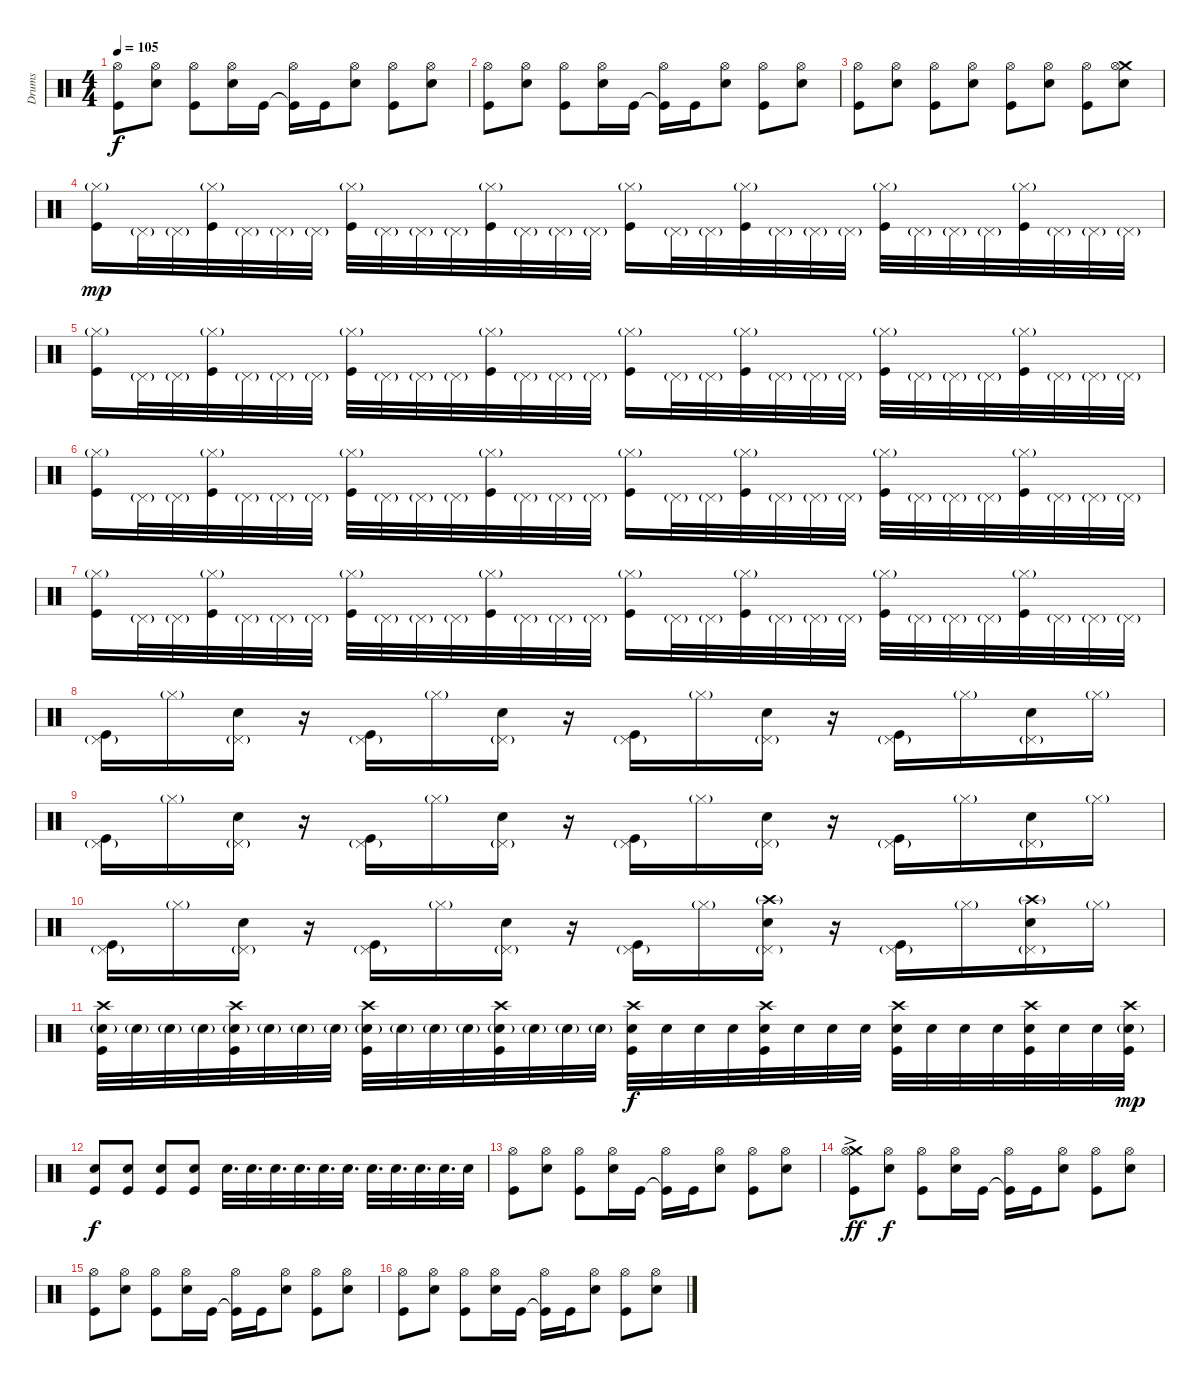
\track ("Drums" "Drums") {instrument percussion}
\staff {score}
\articulation defaults
\ts (4 4)
\tempo 105
\clef neutral
\ks c
("Kick (hit)" "Hi-Hat (open)").8{dy f} ("Electric Snare (hit)" "Hi-Hat (open)").8 ("Kick (hit)" "Hi-Hat (open)").8 ("Electric Snare (hit)" "Hi-Hat (open)").16 "Kick (hit)".16 ("Kick (hit)"{t} "Hi-Hat (open)").16 "Kick (hit)".16 ("Electric Snare (hit)" "Hi-Hat (open)").8 ("Kick (hit)" "Hi-Hat (open)").8 ("Electric Snare (hit)" "Hi-Hat (open)").8 |
("Kick (hit)" "Hi-Hat (open)").8 ("Electric Snare (hit)" "Hi-Hat (open)").8 ("Kick (hit)" "Hi-Hat (open)").8 ("Electric Snare (hit)" "Hi-Hat (open)").16 "Kick (hit)".16 ("Kick (hit)"{t} "Hi-Hat (open)").16 "Kick (hit)".16 ("Electric Snare (hit)" "Hi-Hat (open)").8 ("Kick (hit)" "Hi-Hat (open)").8 ("Electric Snare (hit)" "Hi-Hat (open)").8 |
("Kick (hit)" "Hi-Hat (open)").8 ("Electric Snare (hit)" "Hi-Hat (open)").8 ("Kick (hit)" "Hi-Hat (open)").8 ("Electric Snare (hit)" "Hi-Hat (open)").8 ("Kick (hit)" "Hi-Hat (open)").8 ("Electric Snare (hit)" "Hi-Hat (open)").8 ("Kick (hit)" "Hi-Hat (open)").8 ("Electric Snare (hit)" "Crash medium (hit)" "Hi-Hat (open)").8 |
("Hi-Hat (closed)"{g} "Kick (hit)").16{dy mp} "Pedal Hi-Hat (hit)"{g}.32 "Pedal Hi-Hat (hit)"{g}.32 ("Hi-Hat (closed)"{g} "Kick (hit)").32 "Pedal Hi-Hat (hit)"{g}.32 "Pedal Hi-Hat (hit)"{g}.32 "Pedal Hi-Hat (hit)"{g}.32 ("Hi-Hat (closed)"{g} "Kick (hit)").32 "Pedal Hi-Hat (hit)"{g}.32 "Pedal Hi-Hat (hit)"{g}.32 "Pedal Hi-Hat (hit)"{g}.32 ("Hi-Hat (closed)"{g} "Kick (hit)").32 "Pedal Hi-Hat (hit)"{g}.32 "Pedal Hi-Hat (hit)"{g}.32 "Pedal Hi-Hat (hit)"{g}.32 ("Hi-Hat (closed)"{g} "Kick (hit)").16 "Pedal Hi-Hat (hit)"{g}.32 "Pedal Hi-Hat (hit)"{g}.32 ("Hi-Hat (closed)"{g} "Kick (hit)").32 "Pedal Hi-Hat (hit)"{g}.32 "Pedal Hi-Hat (hit)"{g}.32 "Pedal Hi-Hat (hit)"{g}.32 ("Hi-Hat (closed)"{g} "Kick (hit)").32 "Pedal Hi-Hat (hit)"{g}.32 "Pedal Hi-Hat (hit)"{g}.32 "Pedal Hi-Hat (hit)"{g}.32 ("Hi-Hat (closed)"{g} "Kick (hit)").32 "Pedal Hi-Hat (hit)"{g}.32 "Pedal Hi-Hat (hit)"{g}.32 "Pedal Hi-Hat (hit)"{g}.32 |
("Hi-Hat (closed)"{g} "Kick (hit)").16 "Pedal Hi-Hat (hit)"{g}.32 "Pedal Hi-Hat (hit)"{g}.32 ("Hi-Hat (closed)"{g} "Kick (hit)").32 "Pedal Hi-Hat (hit)"{g}.32 "Pedal Hi-Hat (hit)"{g}.32 "Pedal Hi-Hat (hit)"{g}.32 ("Hi-Hat (closed)"{g} "Kick (hit)").32 "Pedal Hi-Hat (hit)"{g}.32 "Pedal Hi-Hat (hit)"{g}.32 "Pedal Hi-Hat (hit)"{g}.32 ("Hi-Hat (closed)"{g} "Kick (hit)").32 "Pedal Hi-Hat (hit)"{g}.32 "Pedal Hi-Hat (hit)"{g}.32 "Pedal Hi-Hat (hit)"{g}.32 ("Hi-Hat (closed)"{g} "Kick (hit)").16 "Pedal Hi-Hat (hit)"{g}.32 "Pedal Hi-Hat (hit)"{g}.32 ("Hi-Hat (closed)"{g} "Kick (hit)").32 "Pedal Hi-Hat (hit)"{g}.32 "Pedal Hi-Hat (hit)"{g}.32 "Pedal Hi-Hat (hit)"{g}.32 ("Hi-Hat (closed)"{g} "Kick (hit)").32 "Pedal Hi-Hat (hit)"{g}.32 "Pedal Hi-Hat (hit)"{g}.32 "Pedal Hi-Hat (hit)"{g}.32 ("Hi-Hat (closed)"{g} "Kick (hit)").32 "Pedal Hi-Hat (hit)"{g}.32 "Pedal Hi-Hat (hit)"{g}.32 "Pedal Hi-Hat (hit)"{g}.32 |
("Hi-Hat (closed)"{g} "Kick (hit)").16 "Pedal Hi-Hat (hit)"{g}.32 "Pedal Hi-Hat (hit)"{g}.32 ("Hi-Hat (closed)"{g} "Kick (hit)").32 "Pedal Hi-Hat (hit)"{g}.32 "Pedal Hi-Hat (hit)"{g}.32 "Pedal Hi-Hat (hit)"{g}.32 ("Hi-Hat (closed)"{g} "Kick (hit)").32 "Pedal Hi-Hat (hit)"{g}.32 "Pedal Hi-Hat (hit)"{g}.32 "Pedal Hi-Hat (hit)"{g}.32 ("Hi-Hat (closed)"{g} "Kick (hit)").32 "Pedal Hi-Hat (hit)"{g}.32 "Pedal Hi-Hat (hit)"{g}.32 "Pedal Hi-Hat (hit)"{g}.32 ("Hi-Hat (closed)"{g} "Kick (hit)").16 "Pedal Hi-Hat (hit)"{g}.32 "Pedal Hi-Hat (hit)"{g}.32 ("Hi-Hat (closed)"{g} "Kick (hit)").32 "Pedal Hi-Hat (hit)"{g}.32 "Pedal Hi-Hat (hit)"{g}.32 "Pedal Hi-Hat (hit)"{g}.32 ("Hi-Hat (closed)"{g} "Kick (hit)").32 "Pedal Hi-Hat (hit)"{g}.32 "Pedal Hi-Hat (hit)"{g}.32 "Pedal Hi-Hat (hit)"{g}.32 ("Hi-Hat (closed)"{g} "Kick (hit)").32 "Pedal Hi-Hat (hit)"{g}.32 "Pedal Hi-Hat (hit)"{g}.32 "Pedal Hi-Hat (hit)"{g}.32 |
("Hi-Hat (closed)"{g} "Kick (hit)").16 "Pedal Hi-Hat (hit)"{g}.32 "Pedal Hi-Hat (hit)"{g}.32 ("Hi-Hat (closed)"{g} "Kick (hit)").32 "Pedal Hi-Hat (hit)"{g}.32 "Pedal Hi-Hat (hit)"{g}.32 "Pedal Hi-Hat (hit)"{g}.32 ("Hi-Hat (closed)"{g} "Kick (hit)").32 "Pedal Hi-Hat (hit)"{g}.32 "Pedal Hi-Hat (hit)"{g}.32 "Pedal Hi-Hat (hit)"{g}.32 ("Hi-Hat (closed)"{g} "Kick (hit)").32 "Pedal Hi-Hat (hit)"{g}.32 "Pedal Hi-Hat (hit)"{g}.32 "Pedal Hi-Hat (hit)"{g}.32 ("Hi-Hat (closed)"{g} "Kick (hit)").16 "Pedal Hi-Hat (hit)"{g}.32 "Pedal Hi-Hat (hit)"{g}.32 ("Hi-Hat (closed)"{g} "Kick (hit)").32 "Pedal Hi-Hat (hit)"{g}.32 "Pedal Hi-Hat (hit)"{g}.32 "Pedal Hi-Hat (hit)"{g}.32 ("Hi-Hat (closed)"{g} "Kick (hit)").32 "Pedal Hi-Hat (hit)"{g}.32 "Pedal Hi-Hat (hit)"{g}.32 "Pedal Hi-Hat (hit)"{g}.32 ("Hi-Hat (closed)"{g} "Kick (hit)").32 "Pedal Hi-Hat (hit)"{g}.32 "Pedal Hi-Hat (hit)"{g}.32 "Pedal Hi-Hat (hit)"{g}.32 |
("Kick (hit)" "Pedal Hi-Hat (hit)"{g}).16 "Hi-Hat (closed)"{g}.16 ("Snare (hit) 2" "Pedal Hi-Hat (hit)"{g}).16 r.16 ("Kick (hit)" "Pedal Hi-Hat (hit)"{g}).16 "Hi-Hat (closed)"{g}.16 ("Snare (hit) 2" "Pedal Hi-Hat (hit)"{g}).16 r.16 ("Kick (hit)" "Pedal Hi-Hat (hit)"{g}).16 "Hi-Hat (closed)"{g}.16 ("Snare (hit) 2" "Pedal Hi-Hat (hit)"{g}).16 r.16 ("Kick (hit)" "Pedal Hi-Hat (hit)"{g}).16 "Hi-Hat (closed)"{g}.16 ("Snare (hit) 2" "Pedal Hi-Hat (hit)"{g}).16 "Hi-Hat (closed)"{g}.16 |
("Kick (hit)" "Pedal Hi-Hat (hit)"{g}).16 "Hi-Hat (closed)"{g}.16 ("Snare (hit) 2" "Pedal Hi-Hat (hit)"{g}).16 r.16 ("Kick (hit)" "Pedal Hi-Hat (hit)"{g}).16 "Hi-Hat (closed)"{g}.16 ("Snare (hit) 2" "Pedal Hi-Hat (hit)"{g}).16 r.16 ("Kick (hit)" "Pedal Hi-Hat (hit)"{g}).16 "Hi-Hat (closed)"{g}.16 ("Snare (hit) 2" "Pedal Hi-Hat (hit)"{g}).16 r.16 ("Kick (hit)" "Pedal Hi-Hat (hit)"{g}).16 "Hi-Hat (closed)"{g}.16 ("Snare (hit) 2" "Pedal Hi-Hat (hit)"{g}).16 "Hi-Hat (closed)"{g}.16 |
("Kick (hit)" "Pedal Hi-Hat (hit)"{g}).16 "Hi-Hat (closed)"{g}.16 ("Snare (hit) 2" "Pedal Hi-Hat (hit)"{g}).16 r.16 ("Kick (hit)" "Pedal Hi-Hat (hit)"{g}).16 "Hi-Hat (closed)"{g}.16 ("Snare (hit) 2" "Pedal Hi-Hat (hit)"{g}).16 r.16 ("Kick (hit)" "Pedal Hi-Hat (hit)"{g}).16 "Hi-Hat (closed)"{g}.16 ("Snare (hit) 2" "Crash high (hit)"{g} "Pedal Hi-Hat (hit)"{g}).16 r.16 ("Kick (hit)" "Pedal Hi-Hat (hit)"{g}).16 "Hi-Hat (closed)"{g}.16 ("Snare (hit) 2" "Crash high (hit)"{g} "Pedal Hi-Hat (hit)"{g}).16 "Hi-Hat (closed)"{g}.16 |
("Crash high (hit)" "Kick (hit)" "Electric Snare (hit)"{g}).32 "Electric Snare (hit)"{g}.32 "Electric Snare (hit)"{g}.32 "Electric Snare (hit)"{g}.32 ("Crash high (hit)" "Kick (hit)" "Electric Snare (hit)"{g}).32 "Electric Snare (hit)"{g}.32 "Electric Snare (hit)"{g}.32 "Electric Snare (hit)"{g}.32 ("Crash high (hit)" "Kick (hit)" "Electric Snare (hit)"{g}).32 "Electric Snare (hit)"{g}.32 "Electric Snare (hit)"{g}.32 "Electric Snare (hit)"{g}.32 ("Crash high (hit)" "Kick (hit)" "Electric Snare (hit)"{g}).32 "Electric Snare (hit)"{g}.32 "Electric Snare (hit)"{g}.32 "Electric Snare (hit)"{g}.32 ("Crash high (hit)" "Kick (hit)" "Electric Snare (hit)").32{dy f} "Electric Snare (hit)".32 "Electric Snare (hit)".32 "Electric Snare (hit)".32 ("Crash high (hit)" "Kick (hit)" "Electric Snare (hit)").32 "Electric Snare (hit)".32 "Electric Snare (hit)".32 "Electric Snare (hit)".32 ("Crash high (hit)" "Kick (hit)" "Electric Snare (hit)").32 "Electric Snare (hit)".32 "Electric Snare (hit)".32 "Electric Snare (hit)".32 ("Crash high (hit)" "Kick (hit)" "Electric Snare (hit)").32 "Electric Snare (hit)".32 "Electric Snare (hit)".32 ("Crash high (hit)" "Kick (hit)" "Electric Snare (hit)"{g}).32{dy mp} |
("Electric Snare (hit)" "Kick (hit)").8{dy f} ("Electric Snare (hit)" "Kick (hit)").8 ("Electric Snare (hit)" "Kick (hit)").8 ("Electric Snare (hit)" "Kick (hit)").8 "Electric Snare (hit)".32{d} "Electric Snare (hit)".32{d} "Electric Snare (hit)".32{d} "Electric Snare (hit)".32{d} "Electric Snare (hit)".32{d} "Electric Snare (hit)".32{d} "Electric Snare (hit)".32{d} "Electric Snare (hit)".32{d} "Electric Snare (hit)".32{d} "Electric Snare (hit)".32{d} "Electric Snare (hit)".32 |
("Kick (hit)" "Hi-Hat (open)").8 ("Electric Snare (hit)" "Hi-Hat (open)").8 ("Kick (hit)" "Hi-Hat (open)").8 ("Electric Snare (hit)" "Hi-Hat (open)").16 "Kick (hit)".16 ("Kick (hit)"{t} "Hi-Hat (open)").16 "Kick (hit)".16 ("Electric Snare (hit)" "Hi-Hat (open)").8 ("Kick (hit)" "Hi-Hat (open)").8 ("Electric Snare (hit)" "Hi-Hat (open)").8 |
("Kick (hit)" "Crash medium (hit)"{ac} "Hi-Hat (open)").8{dy ff} ("Electric Snare (hit)" "Hi-Hat (open)").8{dy f} ("Kick (hit)" "Hi-Hat (open)").8 ("Electric Snare (hit)" "Hi-Hat (open)").16 "Kick (hit)".16 ("Kick (hit)"{t} "Hi-Hat (open)").16 "Kick (hit)".16 ("Electric Snare (hit)" "Hi-Hat (open)").8 ("Kick (hit)" "Hi-Hat (open)").8 ("Electric Snare (hit)" "Hi-Hat (open)").8 |
("Kick (hit)" "Hi-Hat (open)").8 ("Electric Snare (hit)" "Hi-Hat (open)").8 ("Kick (hit)" "Hi-Hat (open)").8 ("Electric Snare (hit)" "Hi-Hat (open)").16 "Kick (hit)".16 ("Kick (hit)"{t} "Hi-Hat (open)").16 "Kick (hit)".16 ("Electric Snare (hit)" "Hi-Hat (open)").8 ("Kick (hit)" "Hi-Hat (open)").8 ("Electric Snare (hit)" "Hi-Hat (open)").8 |
("Kick (hit)" "Hi-Hat (open)").8 ("Electric Snare (hit)" "Hi-Hat (open)").8 ("Kick (hit)" "Hi-Hat (open)").8 ("Electric Snare (hit)" "Hi-Hat (open)").16 "Kick (hit)".16 ("Kick (hit)"{t} "Hi-Hat (open)").16 "Kick (hit)".16 ("Electric Snare (hit)" "Hi-Hat (open)").8 ("Kick (hit)" "Hi-Hat (open)").8 ("Electric Snare (hit)" "Hi-Hat (open)").8
